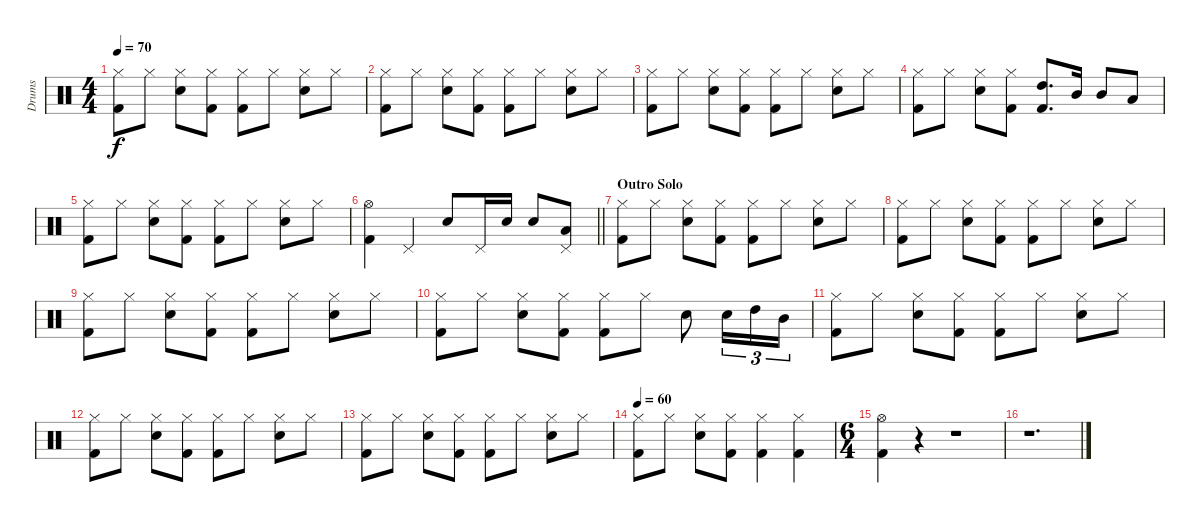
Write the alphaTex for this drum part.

\track ("Drums" "Drums") {instrument percussion}
\staff {score}
\articulation defaults
\ts (4 4)
\tempo 70
\clef neutral
\ks c
("Kick (hit) 2" "Hi-Hat (closed)").8{dy f} "Hi-Hat (closed)".8 ("Snare (hit) 2" "Hi-Hat (closed)").8 ("Kick (hit) 2" "Hi-Hat (closed)").8 ("Kick (hit) 2" "Hi-Hat (closed)").8 "Hi-Hat (closed)".8 ("Snare (hit) 2" "Hi-Hat (closed)").8 "Hi-Hat (closed)".8 |
("Kick (hit) 2" "Hi-Hat (closed)").8 "Hi-Hat (closed)".8 ("Snare (hit) 2" "Hi-Hat (closed)").8 ("Kick (hit) 2" "Hi-Hat (closed)").8 ("Kick (hit) 2" "Hi-Hat (closed)").8 "Hi-Hat (closed)".8 ("Snare (hit) 2" "Hi-Hat (closed)").8 "Hi-Hat (closed)".8 |
("Kick (hit) 2" "Hi-Hat (closed)").8 "Hi-Hat (closed)".8 ("Snare (hit) 2" "Hi-Hat (closed)").8 ("Kick (hit) 2" "Hi-Hat (closed)").8 ("Kick (hit) 2" "Hi-Hat (closed)").8 "Hi-Hat (closed)".8 ("Snare (hit) 2" "Hi-Hat (closed)").8 "Hi-Hat (closed)".8 |
("Kick (hit) 2" "Hi-Hat (closed)").8 "Hi-Hat (closed)".8 ("Snare (hit) 2" "Hi-Hat (closed)").8 ("Kick (hit) 2" "Hi-Hat (closed)").8 ("Kick (hit) 2" "High Tom (hit)").8{d} "Mid Tom (hit)".16 "Mid Tom (hit)".8 "Low Tom (hit)".8 |
("Kick (hit) 2" "Hi-Hat (closed)").8 "Hi-Hat (closed)".8 ("Snare (hit) 2" "Hi-Hat (closed)").8 ("Kick (hit) 2" "Hi-Hat (closed)").8 ("Kick (hit) 2" "Hi-Hat (closed)").8 "Hi-Hat (closed)".8 ("Snare (hit) 2" "Hi-Hat (closed)").8 "Hi-Hat (closed)".8 |
\barLineRight lightlight
("Kick (hit) 2" "Hi-Hat (open)").4 "Pedal Hi-Hat (hit)".4 "Snare (hit) 2".8 "Pedal Hi-Hat (hit)".16 "Snare (hit) 2".16 "Snare (hit) 2".8 ("Pedal Hi-Hat (hit)" "Low Tom (hit)").8 |
\section ("" "Outro Solo")
("Kick (hit) 2" "Hi-Hat (closed)").8 "Hi-Hat (closed)".8 ("Snare (hit) 2" "Hi-Hat (closed)").8 ("Kick (hit) 2" "Hi-Hat (closed)").8 ("Kick (hit) 2" "Hi-Hat (closed)").8 "Hi-Hat (closed)".8 ("Snare (hit) 2" "Hi-Hat (closed)").8 "Hi-Hat (closed)".8 |
("Kick (hit) 2" "Hi-Hat (closed)").8 "Hi-Hat (closed)".8 ("Snare (hit) 2" "Hi-Hat (closed)").8 ("Kick (hit) 2" "Hi-Hat (closed)").8 ("Kick (hit) 2" "Hi-Hat (closed)").8 "Hi-Hat (closed)".8 ("Snare (hit) 2" "Hi-Hat (closed)").8 "Hi-Hat (closed)".8 |
("Kick (hit) 2" "Hi-Hat (closed)").8 "Hi-Hat (closed)".8 ("Snare (hit) 2" "Hi-Hat (closed)").8 ("Kick (hit) 2" "Hi-Hat (closed)").8 ("Kick (hit) 2" "Hi-Hat (closed)").8 "Hi-Hat (closed)".8 ("Snare (hit) 2" "Hi-Hat (closed)").8 "Hi-Hat (closed)".8 |
("Kick (hit) 2" "Hi-Hat (closed)").8 "Hi-Hat (closed)".8 ("Snare (hit) 2" "Hi-Hat (closed)").8 ("Kick (hit) 2" "Hi-Hat (closed)").8 ("Kick (hit) 2" "Hi-Hat (closed)").8 "Hi-Hat (closed)".8 "Snare (hit) 2".8 "Snare (hit) 2".16{tu (3 2)} "High Tom (hit)".16{tu (3 2)} "Mid Tom (hit)".16{tu (3 2)} |
("Kick (hit) 2" "Hi-Hat (closed)").8 "Hi-Hat (closed)".8 ("Snare (hit) 2" "Hi-Hat (closed)").8 ("Kick (hit) 2" "Hi-Hat (closed)").8 ("Kick (hit) 2" "Hi-Hat (closed)").8 "Hi-Hat (closed)".8 ("Snare (hit) 2" "Hi-Hat (closed)").8 "Hi-Hat (closed)".8 |
("Kick (hit) 2" "Hi-Hat (closed)").8 "Hi-Hat (closed)".8 ("Snare (hit) 2" "Hi-Hat (closed)").8 ("Kick (hit) 2" "Hi-Hat (closed)").8 ("Kick (hit) 2" "Hi-Hat (closed)").8 "Hi-Hat (closed)".8 ("Snare (hit) 2" "Hi-Hat (closed)").8 "Hi-Hat (closed)".8 |
("Kick (hit) 2" "Hi-Hat (closed)").8 "Hi-Hat (closed)".8 ("Snare (hit) 2" "Hi-Hat (closed)").8 ("Kick (hit) 2" "Hi-Hat (closed)").8 ("Kick (hit) 2" "Hi-Hat (closed)").8 "Hi-Hat (closed)".8 ("Snare (hit) 2" "Hi-Hat (closed)").8 "Hi-Hat (closed)".8 |
\tempo 60
("Kick (hit) 2" "Hi-Hat (closed)").8 "Hi-Hat (closed)".8 ("Snare (hit) 2" "Hi-Hat (closed)").8 ("Kick (hit) 2" "Hi-Hat (closed)").8 ("Kick (hit) 2" "Hi-Hat (closed)").4 ("Kick (hit) 2" "Hi-Hat (closed)").4 |
\ts (6 4)
("Kick (hit) 2" "Hi-Hat (open)").4 r.4 r.1 |
r.1{d}
